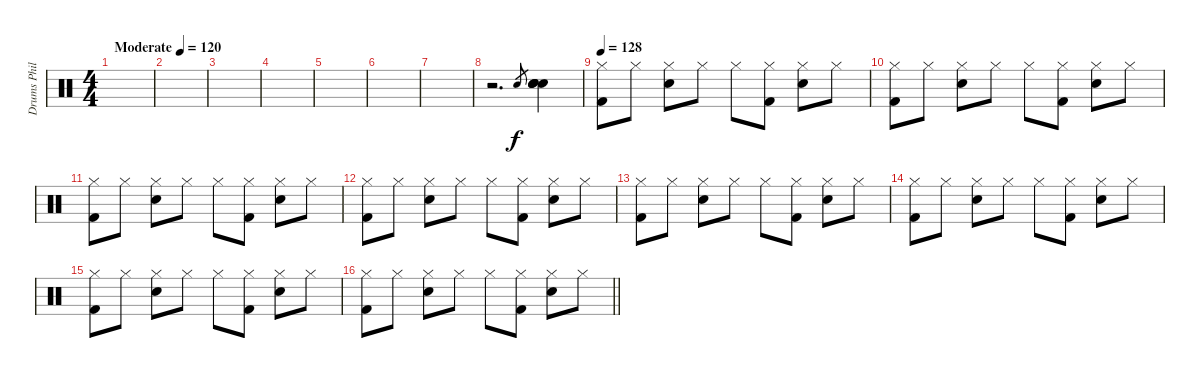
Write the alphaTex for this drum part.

\track ("Drums Phil Rudd" "Drums Phil") {instrument percussion}
\staff {score}
\articulation defaults
\ts (4 4)
\tempo (120 "Moderate")
\clef neutral
\ks c
|
|
|
|
|
|
|
r.2{d} "Electric Snare (hit)".8{gr} ("Electric Snare (hit)" "Electric Snare (hit)" "Electric Snare (hit)" "Electric Snare (hit)").4 |
\tempo 128
("Hi-Hat (closed)" "Kick (hit) 2").8 "Hi-Hat (closed)".8 ("Hi-Hat (closed)" "Electric Snare (hit)").8 "Hi-Hat (closed)".8 "Hi-Hat (closed)".8 ("Hi-Hat (closed)" "Kick (hit) 2").8 ("Hi-Hat (closed)" "Electric Snare (hit)").8 "Hi-Hat (closed)".8 |
("Hi-Hat (closed)" "Kick (hit) 2").8 "Hi-Hat (closed)".8 ("Hi-Hat (closed)" "Electric Snare (hit)").8 "Hi-Hat (closed)".8 "Hi-Hat (closed)".8 ("Hi-Hat (closed)" "Kick (hit) 2").8 ("Hi-Hat (closed)" "Electric Snare (hit)").8 "Hi-Hat (closed)".8 |
("Hi-Hat (closed)" "Kick (hit) 2").8 "Hi-Hat (closed)".8 ("Hi-Hat (closed)" "Electric Snare (hit)").8 "Hi-Hat (closed)".8 "Hi-Hat (closed)".8 ("Hi-Hat (closed)" "Kick (hit) 2").8 ("Hi-Hat (closed)" "Electric Snare (hit)").8 "Hi-Hat (closed)".8 |
("Hi-Hat (closed)" "Kick (hit) 2").8 "Hi-Hat (closed)".8 ("Hi-Hat (closed)" "Electric Snare (hit)").8 "Hi-Hat (closed)".8 "Hi-Hat (closed)".8 ("Hi-Hat (closed)" "Kick (hit) 2").8 ("Hi-Hat (closed)" "Electric Snare (hit)").8 "Hi-Hat (closed)".8 |
("Hi-Hat (closed)" "Kick (hit) 2").8 "Hi-Hat (closed)".8 ("Hi-Hat (closed)" "Electric Snare (hit)").8 "Hi-Hat (closed)".8 "Hi-Hat (closed)".8 ("Hi-Hat (closed)" "Kick (hit) 2").8 ("Hi-Hat (closed)" "Electric Snare (hit)").8 "Hi-Hat (closed)".8 |
("Hi-Hat (closed)" "Kick (hit) 2").8 "Hi-Hat (closed)".8 ("Hi-Hat (closed)" "Electric Snare (hit)").8 "Hi-Hat (closed)".8 "Hi-Hat (closed)".8 ("Hi-Hat (closed)" "Kick (hit) 2").8 ("Hi-Hat (closed)" "Electric Snare (hit)").8 "Hi-Hat (closed)".8 |
("Hi-Hat (closed)" "Kick (hit) 2").8 "Hi-Hat (closed)".8 ("Hi-Hat (closed)" "Electric Snare (hit)").8 "Hi-Hat (closed)".8 "Hi-Hat (closed)".8 ("Hi-Hat (closed)" "Kick (hit) 2").8 ("Hi-Hat (closed)" "Electric Snare (hit)").8 "Hi-Hat (closed)".8 |
\barLineRight lightlight
("Hi-Hat (closed)" "Kick (hit) 2").8 "Hi-Hat (closed)".8 ("Hi-Hat (closed)" "Electric Snare (hit)").8 "Hi-Hat (closed)".8 "Hi-Hat (closed)".8 ("Hi-Hat (closed)" "Kick (hit) 2").8 ("Hi-Hat (closed)" "Electric Snare (hit)").8 "Hi-Hat (closed)".8
